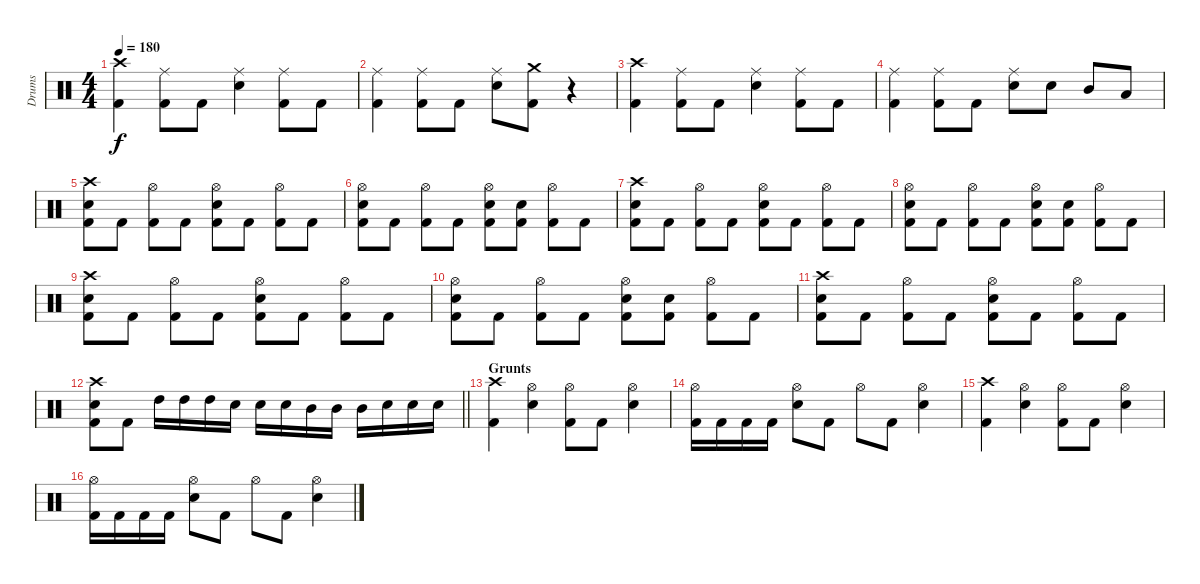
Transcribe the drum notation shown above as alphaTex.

\track ("Drums" "Drums") {instrument percussion}
\staff {score}
\articulation defaults
\ts (4 4)
\tempo 180
\clef neutral
\ks c
("Crash high (hit)" "Kick (hit) 2").4{dy f} ("Ride (middle)" "Kick (hit) 2").8 "Kick (hit) 2".8 ("Ride (middle)" "Electric Snare (hit)").4 ("Ride (middle)" "Kick (hit) 2").8 "Kick (hit) 2".8 |
("Ride (middle)" "Kick (hit) 2").4 ("Ride (middle)" "Kick (hit) 2").8 "Kick (hit) 2".8 ("Ride (middle)" "Electric Snare (hit)").8 ("Crash medium (hit)" "Kick (hit) 2").8 r.4 |
("Crash high (hit)" "Kick (hit) 2").4 ("Ride (middle)" "Kick (hit) 2").8 "Kick (hit) 2".8 ("Ride (middle)" "Electric Snare (hit)").4 ("Ride (middle)" "Kick (hit) 2").8 "Kick (hit) 2".8 |
("Ride (middle)" "Kick (hit) 2").4 ("Ride (middle)" "Kick (hit) 2").8 "Kick (hit) 2".8 ("Ride (middle)" "Electric Snare (hit)").8 "Electric Snare (hit)".8 "Mid Tom (hit)".8 "Low Tom (hit)".8 |
("Crash high (hit)" "Electric Snare (hit)" "Kick (hit) 2").8 "Kick (hit) 2".8 ("Hi-Hat (open)" "Kick (hit) 2").8 "Kick (hit) 2".8 ("Hi-Hat (open)" "Electric Snare (hit)" "Kick (hit) 2").8 "Kick (hit) 2".8 ("Hi-Hat (open)" "Kick (hit) 2").8 "Kick (hit) 2".8 |
("Hi-Hat (open)" "Electric Snare (hit)" "Kick (hit) 2").8 "Kick (hit) 2".8 ("Hi-Hat (open)" "Kick (hit) 2").8 "Kick (hit) 2".8 ("Hi-Hat (open)" "Electric Snare (hit)" "Kick (hit) 2").8 ("Electric Snare (hit)" "Kick (hit) 2").8 ("Hi-Hat (open)" "Kick (hit) 2").8 "Kick (hit) 2".8 |
("Crash high (hit)" "Electric Snare (hit)" "Kick (hit) 2").8 "Kick (hit) 2".8 ("Hi-Hat (open)" "Kick (hit) 2").8 "Kick (hit) 2".8 ("Hi-Hat (open)" "Electric Snare (hit)" "Kick (hit) 2").8 "Kick (hit) 2".8 ("Hi-Hat (open)" "Kick (hit) 2").8 "Kick (hit) 2".8 |
("Hi-Hat (open)" "Electric Snare (hit)" "Kick (hit) 2").8 "Kick (hit) 2".8 ("Hi-Hat (open)" "Kick (hit) 2").8 "Kick (hit) 2".8 ("Hi-Hat (open)" "Electric Snare (hit)" "Kick (hit) 2").8 ("Electric Snare (hit)" "Kick (hit) 2").8 ("Hi-Hat (open)" "Kick (hit) 2").8 "Kick (hit) 2".8 |
("Crash high (hit)" "Electric Snare (hit)" "Kick (hit) 2").8 "Kick (hit) 2".8 ("Hi-Hat (open)" "Kick (hit) 2").8 "Kick (hit) 2".8 ("Hi-Hat (open)" "Electric Snare (hit)" "Kick (hit) 2").8 "Kick (hit) 2".8 ("Hi-Hat (open)" "Kick (hit) 2").8 "Kick (hit) 2".8 |
("Hi-Hat (open)" "Electric Snare (hit)" "Kick (hit) 2").8 "Kick (hit) 2".8 ("Hi-Hat (open)" "Kick (hit) 2").8 "Kick (hit) 2".8 ("Hi-Hat (open)" "Electric Snare (hit)" "Kick (hit) 2").8 ("Electric Snare (hit)" "Kick (hit) 2").8 ("Hi-Hat (open)" "Kick (hit) 2").8 "Kick (hit) 2".8 |
("Crash high (hit)" "Electric Snare (hit)" "Kick (hit) 2").8 "Kick (hit) 2".8 ("Hi-Hat (open)" "Kick (hit) 2").8 "Kick (hit) 2".8 ("Hi-Hat (open)" "Electric Snare (hit)" "Kick (hit) 2").8 "Kick (hit) 2".8 ("Hi-Hat (open)" "Kick (hit) 2").8 "Kick (hit) 2".8 |
\barLineRight lightlight
("Crash high (hit)" "Electric Snare (hit)" "Kick (hit) 2").8 "Kick (hit) 2".8 "High Tom (hit)".16 "High Tom (hit)".16 "High Tom (hit)".16 "Electric Snare (hit)".16 "Electric Snare (hit)".16 "Electric Snare (hit)".16 "Mid Tom (hit)".16 "Mid Tom (hit)".16 "Mid Tom (hit)".16 "Electric Snare (hit)".16 "Electric Snare (hit)".16 "Electric Snare (hit)".16 |
\section ("" "Grunts")
("Crash high (hit)" "Kick (hit) 2").4 ("Hi-Hat (open)" "Electric Snare (hit)").4 ("Hi-Hat (open)" "Kick (hit) 2").8 "Kick (hit) 2".8 ("Hi-Hat (open)" "Electric Snare (hit)").4 |
("Hi-Hat (open)" "Kick (hit) 2").16 "Kick (hit) 2".16 "Kick (hit) 2".16 "Kick (hit) 2".16 ("Hi-Hat (open)" "Electric Snare (hit)").8 "Kick (hit) 2".8 "Hi-Hat (open)".8 "Kick (hit) 2".8 ("Hi-Hat (open)" "Electric Snare (hit)").4 |
("Crash high (hit)" "Kick (hit) 2").4 ("Hi-Hat (open)" "Electric Snare (hit)").4 ("Hi-Hat (open)" "Kick (hit) 2").8 "Kick (hit) 2".8 ("Hi-Hat (open)" "Electric Snare (hit)").4 |
("Hi-Hat (open)" "Kick (hit) 2").16 "Kick (hit) 2".16 "Kick (hit) 2".16 "Kick (hit) 2".16 ("Hi-Hat (open)" "Electric Snare (hit)").8 "Kick (hit) 2".8 "Hi-Hat (open)".8 "Kick (hit) 2".8 ("Hi-Hat (open)" "Electric Snare (hit)").4
